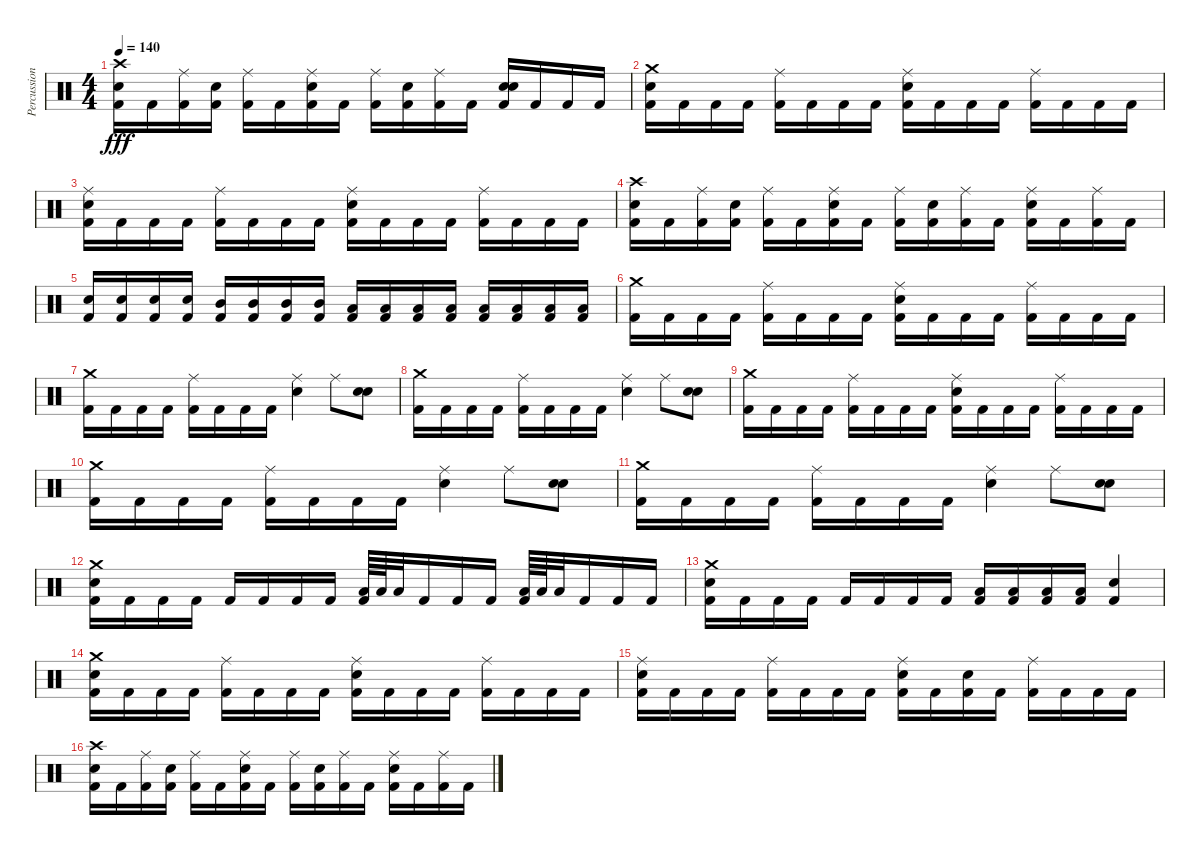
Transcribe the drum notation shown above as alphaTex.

\track ("Percussion" "Percussion") {instrument percussion}
\staff {score}
\articulation defaults
\ts (4 4)
\tempo 140
\clef neutral
\ks c
("Crash high (hit)" "Snare (hit) 2" "Kick (hit) 2").16{dy fff} "Kick (hit) 2".16 ("Ride (middle)" "Kick (hit) 2").16 ("Snare (hit) 2" "Kick (hit) 2").16 ("Ride (middle)" "Kick (hit) 2").16 "Kick (hit) 2".16 ("Ride (middle)" "Snare (hit) 2" "Kick (hit) 2").16 "Kick (hit) 2".16 ("Ride (middle)" "Kick (hit) 2").16 ("Snare (hit) 2" "Kick (hit) 2").16 ("Ride (middle)" "Kick (hit) 2").16 "Kick (hit) 2".16 ("Snare (hit) 2" "Snare (hit) 2" "Kick (hit) 2").16 "Kick (hit) 2".16 "Kick (hit) 2".16 "Kick (hit) 2".16 |
("Crash medium (hit)" "Snare (hit) 2" "Kick (hit) 2").16 "Kick (hit) 2".16 "Kick (hit) 2".16 "Kick (hit) 2".16 ("Ride (middle)" "Kick (hit) 2").16 "Kick (hit) 2".16 "Kick (hit) 2".16 "Kick (hit) 2".16 ("Ride (middle)" "Snare (hit) 2" "Kick (hit) 2").16 "Kick (hit) 2".16 "Kick (hit) 2".16 "Kick (hit) 2".16 ("Ride (middle)" "Kick (hit) 2").16 "Kick (hit) 2".16 "Kick (hit) 2".16 "Kick (hit) 2".16 |
("Ride (middle)" "Snare (hit) 2" "Kick (hit) 2").16 "Kick (hit) 2".16 "Kick (hit) 2".16 "Kick (hit) 2".16 ("Ride (middle)" "Kick (hit) 2").16 "Kick (hit) 2".16 "Kick (hit) 2".16 "Kick (hit) 2".16 ("Ride (middle)" "Snare (hit) 2" "Kick (hit) 2").16 "Kick (hit) 2".16 "Kick (hit) 2".16 "Kick (hit) 2".16 ("Ride (middle)" "Kick (hit) 2").16 "Kick (hit) 2".16 "Kick (hit) 2".16 "Kick (hit) 2".16 |
("Crash high (hit)" "Snare (hit) 2" "Kick (hit) 2").16 "Kick (hit) 2".16 ("Ride (middle)" "Kick (hit) 2").16 ("Snare (hit) 2" "Kick (hit) 2").16 ("Ride (middle)" "Kick (hit) 2").16 "Kick (hit) 2".16 ("Ride (middle)" "Snare (hit) 2" "Kick (hit) 2").16 "Kick (hit) 2".16 ("Ride (middle)" "Kick (hit) 2").16 ("Snare (hit) 2" "Kick (hit) 2").16 ("Ride (middle)" "Kick (hit) 2").16 "Kick (hit) 2".16 ("Ride (middle)" "Snare (hit) 2" "Kick (hit) 2").16 "Kick (hit) 2".16 ("Ride (middle)" "Kick (hit) 2").16 "Kick (hit) 2".16 |
("Snare (hit) 2" "Kick (hit) 2").16 ("Snare (hit) 2" "Kick (hit) 2").16 ("Snare (hit) 2" "Kick (hit) 2").16 ("Snare (hit) 2" "Kick (hit) 2").16 ("Mid Tom (hit)" "Kick (hit) 2").16 ("Mid Tom (hit)" "Kick (hit) 2").16 ("Mid Tom (hit)" "Kick (hit) 2").16 ("Mid Tom (hit)" "Kick (hit) 2").16 ("Low Tom (hit)" "Kick (hit) 2").16 ("Low Tom (hit)" "Kick (hit) 2").16 ("Low Tom (hit)" "Kick (hit) 2").16 ("Low Tom (hit)" "Kick (hit) 2").16 ("Low Floor Tom (hit)" "Kick (hit) 2").16 ("Low Floor Tom (hit)" "Kick (hit) 2").16 ("Low Floor Tom (hit)" "Kick (hit) 2").16 ("Low Floor Tom (hit)" "Kick (hit) 2").16 |
("Crash medium (hit)" "Kick (hit) 2").16 "Kick (hit) 2".16 "Kick (hit) 2".16 "Kick (hit) 2".16 ("Ride (middle)" "Kick (hit) 2").16 "Kick (hit) 2".16 "Kick (hit) 2".16 "Kick (hit) 2".16 ("Ride (middle)" "Snare (hit) 2" "Kick (hit) 2").16 "Kick (hit) 2".16 "Kick (hit) 2".16 "Kick (hit) 2".16 ("Ride (middle)" "Kick (hit) 2").16 "Kick (hit) 2".16 "Kick (hit) 2".16 "Kick (hit) 2".16 |
("Crash medium (hit)" "Kick (hit) 2").16 "Kick (hit) 2".16 "Kick (hit) 2".16 "Kick (hit) 2".16 ("Ride (middle)" "Kick (hit) 2").16 "Kick (hit) 2".16 "Kick (hit) 2".16 "Kick (hit) 2".16 ("Ride (middle)" "Snare (hit) 2").4 "Ride (middle)".8 ("Snare (hit) 2" "Snare (hit) 2").8 |
("Crash medium (hit)" "Kick (hit) 2").16 "Kick (hit) 2".16 "Kick (hit) 2".16 "Kick (hit) 2".16 ("Ride (middle)" "Kick (hit) 2").16 "Kick (hit) 2".16 "Kick (hit) 2".16 "Kick (hit) 2".16 ("Ride (middle)" "Snare (hit) 2").4 "Ride (middle)".8 ("Snare (hit) 2" "Snare (hit) 2").8 |
("Crash medium (hit)" "Kick (hit) 2").16 "Kick (hit) 2".16 "Kick (hit) 2".16 "Kick (hit) 2".16 ("Ride (middle)" "Kick (hit) 2").16 "Kick (hit) 2".16 "Kick (hit) 2".16 "Kick (hit) 2".16 ("Ride (middle)" "Snare (hit) 2" "Kick (hit) 2").16 "Kick (hit) 2".16 "Kick (hit) 2".16 "Kick (hit) 2".16 ("Ride (middle)" "Kick (hit) 2").16 "Kick (hit) 2".16 "Kick (hit) 2".16 "Kick (hit) 2".16 |
("Crash medium (hit)" "Kick (hit) 2").16 "Kick (hit) 2".16 "Kick (hit) 2".16 "Kick (hit) 2".16 ("Ride (middle)" "Kick (hit) 2").16 "Kick (hit) 2".16 "Kick (hit) 2".16 "Kick (hit) 2".16 ("Ride (middle)" "Snare (hit) 2").4 "Ride (middle)".8 ("Snare (hit) 2" "Snare (hit) 2").8 |
("Crash medium (hit)" "Kick (hit) 2").16 "Kick (hit) 2".16 "Kick (hit) 2".16 "Kick (hit) 2".16 ("Ride (middle)" "Kick (hit) 2").16 "Kick (hit) 2".16 "Kick (hit) 2".16 "Kick (hit) 2".16 ("Ride (middle)" "Snare (hit) 2").4 "Ride (middle)".8 ("Snare (hit) 2" "Snare (hit) 2").8 |
("Crash medium (hit)" "Snare (hit) 2" "Kick (hit) 2").16 "Kick (hit) 2".16 "Kick (hit) 2".16 "Kick (hit) 2".16 "Kick (hit) 2".16 "Kick (hit) 2".16 "Kick (hit) 2".16 "Kick (hit) 2".16 ("Low Tom (hit)" "Kick (hit) 2").64 "Low Tom (hit)".64 "Low Tom (hit)".32 "Kick (hit) 2".16 "Kick (hit) 2".16 "Kick (hit) 2".16 ("Low Floor Tom (hit)" "Kick (hit) 2").64 "Low Floor Tom (hit)".64 "Low Floor Tom (hit)".32 "Kick (hit) 2".16 "Kick (hit) 2".16 "Kick (hit) 2".16 |
("Crash medium (hit)" "Snare (hit) 2" "Kick (hit) 2").16 "Kick (hit) 2".16 "Kick (hit) 2".16 "Kick (hit) 2".16 "Kick (hit) 2".16 "Kick (hit) 2".16 "Kick (hit) 2".16 "Kick (hit) 2".16 ("Low Floor Tom (hit)" "Kick (hit) 2").16 ("Low Floor Tom (hit)" "Kick (hit) 2").16 ("Low Floor Tom (hit)" "Kick (hit) 2").16 ("Low Floor Tom (hit)" "Kick (hit) 2").16 ("Snare (hit) 2" "Kick (hit) 2").4 |
("Crash medium (hit)" "Snare (hit) 2" "Kick (hit) 2").16 "Kick (hit) 2".16 "Kick (hit) 2".16 "Kick (hit) 2".16 ("Ride (middle)" "Kick (hit) 2").16 "Kick (hit) 2".16 "Kick (hit) 2".16 "Kick (hit) 2".16 ("Ride (middle)" "Snare (hit) 2" "Kick (hit) 2").16 "Kick (hit) 2".16 "Kick (hit) 2".16 "Kick (hit) 2".16 ("Ride (middle)" "Kick (hit) 2").16 "Kick (hit) 2".16 "Kick (hit) 2".16 "Kick (hit) 2".16 |
("Ride (middle)" "Snare (hit) 2" "Kick (hit) 2").16 "Kick (hit) 2".16 "Kick (hit) 2".16 "Kick (hit) 2".16 ("Ride (middle)" "Kick (hit) 2").16 "Kick (hit) 2".16 "Kick (hit) 2".16 "Kick (hit) 2".16 ("Ride (middle)" "Snare (hit) 2" "Kick (hit) 2").16 "Kick (hit) 2".16 ("Snare (hit) 2" "Kick (hit) 2").16 "Kick (hit) 2".16 ("Ride (middle)" "Kick (hit) 2").16 "Kick (hit) 2".16 "Kick (hit) 2".16 "Kick (hit) 2".16 |
("Crash high (hit)" "Snare (hit) 2" "Kick (hit) 2").16 "Kick (hit) 2".16 ("Ride (middle)" "Kick (hit) 2").16 ("Snare (hit) 2" "Kick (hit) 2").16 ("Ride (middle)" "Kick (hit) 2").16 "Kick (hit) 2".16 ("Ride (middle)" "Snare (hit) 2" "Kick (hit) 2").16 "Kick (hit) 2".16 ("Ride (middle)" "Kick (hit) 2").16 ("Snare (hit) 2" "Kick (hit) 2").16 ("Ride (middle)" "Kick (hit) 2").16 "Kick (hit) 2".16 ("Ride (middle)" "Snare (hit) 2" "Kick (hit) 2").16 "Kick (hit) 2".16 ("Ride (middle)" "Kick (hit) 2").16 "Kick (hit) 2".16
